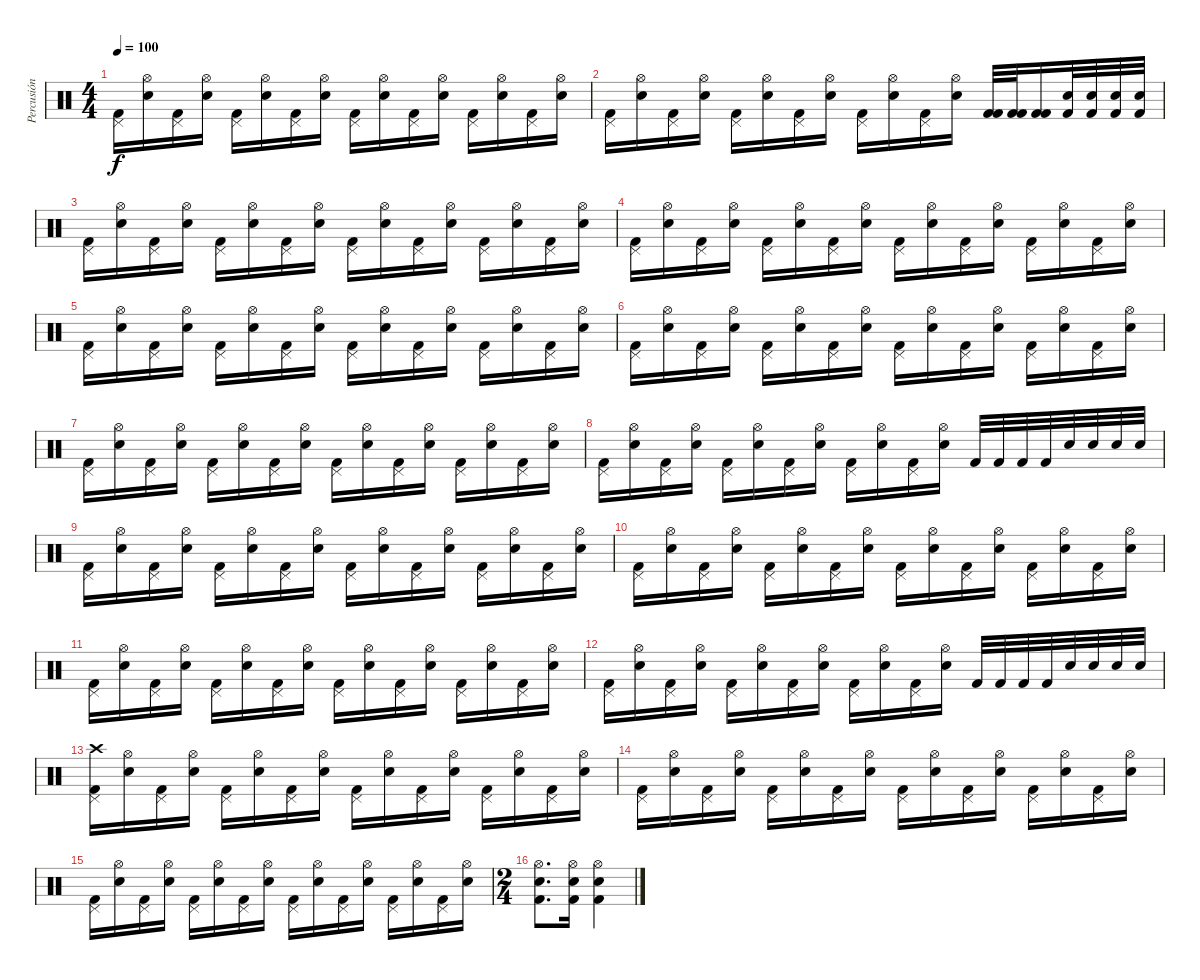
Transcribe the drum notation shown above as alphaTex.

\track ("Percusión" "Percusión") {instrument percussion}
\staff {score}
\articulation defaults
\ts (4 4)
\tempo 100
\clef neutral
\ks c
("Kick (hit) 2" "Pedal Hi-Hat (hit)").16{dy f} ("Snare (hit) 2" "Hi-Hat (open)").16 ("Kick (hit) 2" "Pedal Hi-Hat (hit)").16 ("Snare (hit) 2" "Hi-Hat (open)").16 ("Kick (hit) 2" "Pedal Hi-Hat (hit)").16 ("Snare (hit) 2" "Hi-Hat (open)").16 ("Kick (hit) 2" "Pedal Hi-Hat (hit)").16 ("Snare (hit) 2" "Hi-Hat (open)").16 ("Kick (hit) 2" "Pedal Hi-Hat (hit)").16 ("Snare (hit) 2" "Hi-Hat (open)").16 ("Kick (hit) 2" "Pedal Hi-Hat (hit)").16 ("Snare (hit) 2" "Hi-Hat (open)").16 ("Kick (hit) 2" "Pedal Hi-Hat (hit)").16 ("Snare (hit) 2" "Hi-Hat (open)").16 ("Kick (hit) 2" "Pedal Hi-Hat (hit)").16 ("Snare (hit) 2" "Hi-Hat (open)").16 |
("Kick (hit) 2" "Pedal Hi-Hat (hit)").16 ("Snare (hit) 2" "Hi-Hat (open)").16 ("Kick (hit) 2" "Pedal Hi-Hat (hit)").16 ("Snare (hit) 2" "Hi-Hat (open)").16 ("Kick (hit) 2" "Pedal Hi-Hat (hit)").16 ("Snare (hit) 2" "Hi-Hat (open)").16 ("Kick (hit) 2" "Pedal Hi-Hat (hit)").16 ("Snare (hit) 2" "Hi-Hat (open)").16 ("Kick (hit) 2" "Pedal Hi-Hat (hit)").16 ("Snare (hit) 2" "Hi-Hat (open)").16 ("Kick (hit) 2" "Pedal Hi-Hat (hit)").16 ("Snare (hit) 2" "Hi-Hat (open)").16 ("Kick (hit) 2" "Kick (hit) 2").32 ("Kick (hit) 2" "Kick (hit) 2").32 ("Kick (hit) 2" "Kick (hit) 2").16 ("Snare (hit) 2" "Kick (hit) 2").32 ("Snare (hit) 2" "Kick (hit) 2").32 ("Snare (hit) 2" "Kick (hit) 2").32 ("Snare (hit) 2" "Kick (hit) 2").32 |
("Kick (hit) 2" "Pedal Hi-Hat (hit)").16 ("Snare (hit) 2" "Hi-Hat (open)").16 ("Kick (hit) 2" "Pedal Hi-Hat (hit)").16 ("Snare (hit) 2" "Hi-Hat (open)").16 ("Kick (hit) 2" "Pedal Hi-Hat (hit)").16 ("Snare (hit) 2" "Hi-Hat (open)").16 ("Kick (hit) 2" "Pedal Hi-Hat (hit)").16 ("Snare (hit) 2" "Hi-Hat (open)").16 ("Kick (hit) 2" "Pedal Hi-Hat (hit)").16 ("Snare (hit) 2" "Hi-Hat (open)").16 ("Kick (hit) 2" "Pedal Hi-Hat (hit)").16 ("Snare (hit) 2" "Hi-Hat (open)").16 ("Kick (hit) 2" "Pedal Hi-Hat (hit)").16 ("Snare (hit) 2" "Hi-Hat (open)").16 ("Kick (hit) 2" "Pedal Hi-Hat (hit)").16 ("Snare (hit) 2" "Hi-Hat (open)").16 |
("Kick (hit) 2" "Pedal Hi-Hat (hit)").16 ("Snare (hit) 2" "Hi-Hat (open)").16 ("Kick (hit) 2" "Pedal Hi-Hat (hit)").16 ("Snare (hit) 2" "Hi-Hat (open)").16 ("Kick (hit) 2" "Pedal Hi-Hat (hit)").16 ("Snare (hit) 2" "Hi-Hat (open)").16 ("Kick (hit) 2" "Pedal Hi-Hat (hit)").16 ("Snare (hit) 2" "Hi-Hat (open)").16 ("Kick (hit) 2" "Pedal Hi-Hat (hit)").16 ("Snare (hit) 2" "Hi-Hat (open)").16 ("Kick (hit) 2" "Pedal Hi-Hat (hit)").16 ("Snare (hit) 2" "Hi-Hat (open)").16 ("Kick (hit) 2" "Pedal Hi-Hat (hit)").16 ("Snare (hit) 2" "Hi-Hat (open)").16 ("Kick (hit) 2" "Pedal Hi-Hat (hit)").16 ("Snare (hit) 2" "Hi-Hat (open)").16 |
("Kick (hit) 2" "Pedal Hi-Hat (hit)").16 ("Snare (hit) 2" "Hi-Hat (open)").16 ("Kick (hit) 2" "Pedal Hi-Hat (hit)").16 ("Snare (hit) 2" "Hi-Hat (open)").16 ("Kick (hit) 2" "Pedal Hi-Hat (hit)").16 ("Snare (hit) 2" "Hi-Hat (open)").16 ("Kick (hit) 2" "Pedal Hi-Hat (hit)").16 ("Snare (hit) 2" "Hi-Hat (open)").16 ("Kick (hit) 2" "Pedal Hi-Hat (hit)").16 ("Snare (hit) 2" "Hi-Hat (open)").16 ("Kick (hit) 2" "Pedal Hi-Hat (hit)").16 ("Snare (hit) 2" "Hi-Hat (open)").16 ("Kick (hit) 2" "Pedal Hi-Hat (hit)").16 ("Snare (hit) 2" "Hi-Hat (open)").16 ("Kick (hit) 2" "Pedal Hi-Hat (hit)").16 ("Snare (hit) 2" "Hi-Hat (open)").16 |
("Kick (hit) 2" "Pedal Hi-Hat (hit)").16 ("Snare (hit) 2" "Hi-Hat (open)").16 ("Kick (hit) 2" "Pedal Hi-Hat (hit)").16 ("Snare (hit) 2" "Hi-Hat (open)").16 ("Kick (hit) 2" "Pedal Hi-Hat (hit)").16 ("Snare (hit) 2" "Hi-Hat (open)").16 ("Kick (hit) 2" "Pedal Hi-Hat (hit)").16 ("Snare (hit) 2" "Hi-Hat (open)").16 ("Kick (hit) 2" "Pedal Hi-Hat (hit)").16 ("Snare (hit) 2" "Hi-Hat (open)").16 ("Kick (hit) 2" "Pedal Hi-Hat (hit)").16 ("Snare (hit) 2" "Hi-Hat (open)").16 ("Kick (hit) 2" "Pedal Hi-Hat (hit)").16 ("Snare (hit) 2" "Hi-Hat (open)").16 ("Kick (hit) 2" "Pedal Hi-Hat (hit)").16 ("Snare (hit) 2" "Hi-Hat (open)").16 |
("Kick (hit) 2" "Pedal Hi-Hat (hit)").16 ("Snare (hit) 2" "Hi-Hat (open)").16 ("Kick (hit) 2" "Pedal Hi-Hat (hit)").16 ("Snare (hit) 2" "Hi-Hat (open)").16 ("Kick (hit) 2" "Pedal Hi-Hat (hit)").16 ("Snare (hit) 2" "Hi-Hat (open)").16 ("Kick (hit) 2" "Pedal Hi-Hat (hit)").16 ("Snare (hit) 2" "Hi-Hat (open)").16 ("Kick (hit) 2" "Pedal Hi-Hat (hit)").16 ("Snare (hit) 2" "Hi-Hat (open)").16 ("Kick (hit) 2" "Pedal Hi-Hat (hit)").16 ("Snare (hit) 2" "Hi-Hat (open)").16 ("Kick (hit) 2" "Pedal Hi-Hat (hit)").16 ("Snare (hit) 2" "Hi-Hat (open)").16 ("Kick (hit) 2" "Pedal Hi-Hat (hit)").16 ("Snare (hit) 2" "Hi-Hat (open)").16 |
("Kick (hit) 2" "Pedal Hi-Hat (hit)").16 ("Snare (hit) 2" "Hi-Hat (open)").16 ("Kick (hit) 2" "Pedal Hi-Hat (hit)").16 ("Snare (hit) 2" "Hi-Hat (open)").16 ("Kick (hit) 2" "Pedal Hi-Hat (hit)").16 ("Snare (hit) 2" "Hi-Hat (open)").16 ("Kick (hit) 2" "Pedal Hi-Hat (hit)").16 ("Snare (hit) 2" "Hi-Hat (open)").16 ("Kick (hit) 2" "Pedal Hi-Hat (hit)").16 ("Snare (hit) 2" "Hi-Hat (open)").16 ("Kick (hit) 2" "Pedal Hi-Hat (hit)").16 ("Snare (hit) 2" "Hi-Hat (open)").16 "Kick (hit) 2".32 "Kick (hit) 2".32 "Kick (hit) 2".32 "Kick (hit) 2".32 "Snare (hit) 2".32 "Snare (hit) 2".32 "Snare (hit) 2".32 "Snare (hit) 2".32 |
("Kick (hit) 2" "Pedal Hi-Hat (hit)").16 ("Snare (hit) 2" "Hi-Hat (open)").16 ("Kick (hit) 2" "Pedal Hi-Hat (hit)").16 ("Snare (hit) 2" "Hi-Hat (open)").16 ("Kick (hit) 2" "Pedal Hi-Hat (hit)").16 ("Snare (hit) 2" "Hi-Hat (open)").16 ("Kick (hit) 2" "Pedal Hi-Hat (hit)").16 ("Snare (hit) 2" "Hi-Hat (open)").16 ("Kick (hit) 2" "Pedal Hi-Hat (hit)").16 ("Snare (hit) 2" "Hi-Hat (open)").16 ("Kick (hit) 2" "Pedal Hi-Hat (hit)").16 ("Snare (hit) 2" "Hi-Hat (open)").16 ("Kick (hit) 2" "Pedal Hi-Hat (hit)").16 ("Snare (hit) 2" "Hi-Hat (open)").16 ("Kick (hit) 2" "Pedal Hi-Hat (hit)").16 ("Snare (hit) 2" "Hi-Hat (open)").16 |
("Kick (hit) 2" "Pedal Hi-Hat (hit)").16 ("Snare (hit) 2" "Hi-Hat (open)").16 ("Kick (hit) 2" "Pedal Hi-Hat (hit)").16 ("Snare (hit) 2" "Hi-Hat (open)").16 ("Kick (hit) 2" "Pedal Hi-Hat (hit)").16 ("Snare (hit) 2" "Hi-Hat (open)").16 ("Kick (hit) 2" "Pedal Hi-Hat (hit)").16 ("Snare (hit) 2" "Hi-Hat (open)").16 ("Kick (hit) 2" "Pedal Hi-Hat (hit)").16 ("Snare (hit) 2" "Hi-Hat (open)").16 ("Kick (hit) 2" "Pedal Hi-Hat (hit)").16 ("Snare (hit) 2" "Hi-Hat (open)").16 ("Kick (hit) 2" "Pedal Hi-Hat (hit)").16 ("Snare (hit) 2" "Hi-Hat (open)").16 ("Kick (hit) 2" "Pedal Hi-Hat (hit)").16 ("Snare (hit) 2" "Hi-Hat (open)").16 |
("Kick (hit) 2" "Pedal Hi-Hat (hit)").16 ("Snare (hit) 2" "Hi-Hat (open)").16 ("Kick (hit) 2" "Pedal Hi-Hat (hit)").16 ("Snare (hit) 2" "Hi-Hat (open)").16 ("Kick (hit) 2" "Pedal Hi-Hat (hit)").16 ("Snare (hit) 2" "Hi-Hat (open)").16 ("Kick (hit) 2" "Pedal Hi-Hat (hit)").16 ("Snare (hit) 2" "Hi-Hat (open)").16 ("Kick (hit) 2" "Pedal Hi-Hat (hit)").16 ("Snare (hit) 2" "Hi-Hat (open)").16 ("Kick (hit) 2" "Pedal Hi-Hat (hit)").16 ("Snare (hit) 2" "Hi-Hat (open)").16 ("Kick (hit) 2" "Pedal Hi-Hat (hit)").16 ("Snare (hit) 2" "Hi-Hat (open)").16 ("Kick (hit) 2" "Pedal Hi-Hat (hit)").16 ("Snare (hit) 2" "Hi-Hat (open)").16 |
("Kick (hit) 2" "Pedal Hi-Hat (hit)").16 ("Snare (hit) 2" "Hi-Hat (open)").16 ("Kick (hit) 2" "Pedal Hi-Hat (hit)").16 ("Snare (hit) 2" "Hi-Hat (open)").16 ("Kick (hit) 2" "Pedal Hi-Hat (hit)").16 ("Snare (hit) 2" "Hi-Hat (open)").16 ("Kick (hit) 2" "Pedal Hi-Hat (hit)").16 ("Snare (hit) 2" "Hi-Hat (open)").16 ("Kick (hit) 2" "Pedal Hi-Hat (hit)").16 ("Snare (hit) 2" "Hi-Hat (open)").16 ("Kick (hit) 2" "Pedal Hi-Hat (hit)").16 ("Snare (hit) 2" "Hi-Hat (open)").16 "Kick (hit) 2".32 "Kick (hit) 2".32 "Kick (hit) 2".32 "Kick (hit) 2".32 "Snare (hit) 2".32 "Snare (hit) 2".32 "Snare (hit) 2".32 "Snare (hit) 2".32 |
("Crash high (hit)" "Kick (hit) 2" "Pedal Hi-Hat (hit)").16 ("Snare (hit) 2" "Hi-Hat (open)").16 ("Kick (hit) 2" "Pedal Hi-Hat (hit)").16 ("Snare (hit) 2" "Hi-Hat (open)").16 ("Kick (hit) 2" "Pedal Hi-Hat (hit)").16 ("Snare (hit) 2" "Hi-Hat (open)").16 ("Kick (hit) 2" "Pedal Hi-Hat (hit)").16 ("Snare (hit) 2" "Hi-Hat (open)").16 ("Kick (hit) 2" "Pedal Hi-Hat (hit)").16 ("Snare (hit) 2" "Hi-Hat (open)").16 ("Kick (hit) 2" "Pedal Hi-Hat (hit)").16 ("Snare (hit) 2" "Hi-Hat (open)").16 ("Kick (hit) 2" "Pedal Hi-Hat (hit)").16 ("Snare (hit) 2" "Hi-Hat (open)").16 ("Kick (hit) 2" "Pedal Hi-Hat (hit)").16 ("Snare (hit) 2" "Hi-Hat (open)").16 |
("Kick (hit) 2" "Pedal Hi-Hat (hit)").16 ("Snare (hit) 2" "Hi-Hat (open)").16 ("Kick (hit) 2" "Pedal Hi-Hat (hit)").16 ("Snare (hit) 2" "Hi-Hat (open)").16 ("Kick (hit) 2" "Pedal Hi-Hat (hit)").16 ("Snare (hit) 2" "Hi-Hat (open)").16 ("Kick (hit) 2" "Pedal Hi-Hat (hit)").16 ("Snare (hit) 2" "Hi-Hat (open)").16 ("Kick (hit) 2" "Pedal Hi-Hat (hit)").16 ("Snare (hit) 2" "Hi-Hat (open)").16 ("Kick (hit) 2" "Pedal Hi-Hat (hit)").16 ("Snare (hit) 2" "Hi-Hat (open)").16 ("Kick (hit) 2" "Pedal Hi-Hat (hit)").16 ("Snare (hit) 2" "Hi-Hat (open)").16 ("Kick (hit) 2" "Pedal Hi-Hat (hit)").16 ("Snare (hit) 2" "Hi-Hat (open)").16 |
("Kick (hit) 2" "Pedal Hi-Hat (hit)").16 ("Snare (hit) 2" "Hi-Hat (open)").16 ("Kick (hit) 2" "Pedal Hi-Hat (hit)").16 ("Snare (hit) 2" "Hi-Hat (open)").16 ("Kick (hit) 2" "Pedal Hi-Hat (hit)").16 ("Snare (hit) 2" "Hi-Hat (open)").16 ("Kick (hit) 2" "Pedal Hi-Hat (hit)").16 ("Snare (hit) 2" "Hi-Hat (open)").16 ("Kick (hit) 2" "Pedal Hi-Hat (hit)").16 ("Snare (hit) 2" "Hi-Hat (open)").16 ("Kick (hit) 2" "Pedal Hi-Hat (hit)").16 ("Snare (hit) 2" "Hi-Hat (open)").16 ("Kick (hit) 2" "Pedal Hi-Hat (hit)").16 ("Snare (hit) 2" "Hi-Hat (open)").16 ("Kick (hit) 2" "Pedal Hi-Hat (hit)").16 ("Snare (hit) 2" "Hi-Hat (open)").16 |
\ts (2 4)
("Snare (hit) 2" "Hi-Hat (open)" "Kick (hit) 2").8{d} ("Snare (hit) 2" "Hi-Hat (open)" "Kick (hit) 2").16 ("Snare (hit) 2" "Hi-Hat (open)" "Kick (hit) 2").4
